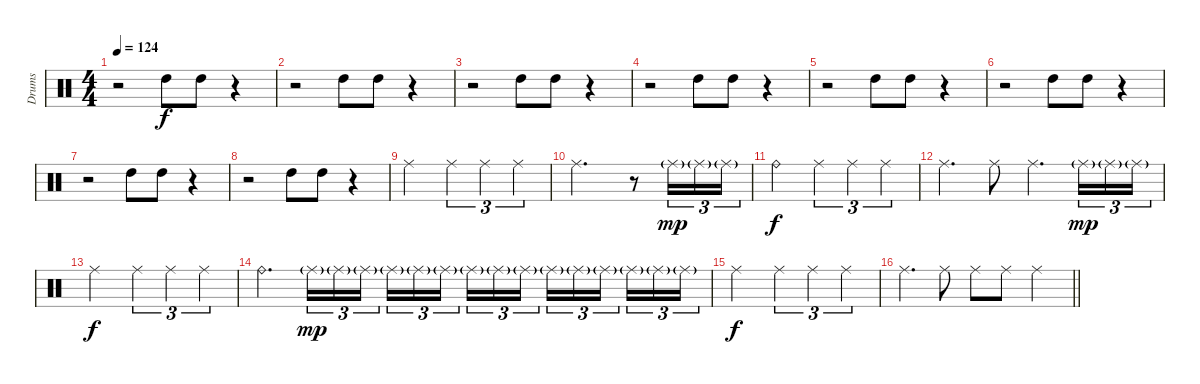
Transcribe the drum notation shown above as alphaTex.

\track ("Drums" "Drums") {instrument percussion}
\staff {score}
\articulation defaults
\ts (4 4)
\tempo 124
\clef neutral
\ks c
r.2{dy f} "High Tom (hit)".8 "High Tom (hit)".8 r.4 |
r.2 "High Tom (hit)".8 "High Tom (hit)".8 r.4 |
r.2 "High Tom (hit)".8 "High Tom (hit)".8 r.4 |
r.2 "High Tom (hit)".8 "High Tom (hit)".8 r.4 |
r.2 "High Tom (hit)".8 "High Tom (hit)".8 r.4 |
r.2 "High Tom (hit)".8 "High Tom (hit)".8 r.4 |
r.2 "High Tom (hit)".8 "High Tom (hit)".8 r.4 |
r.2 "High Tom (hit)".8 "High Tom (hit)".8 r.4 |
"Ride (middle)".2 "Ride (middle)".4{tu (3 2)} "Ride (middle)".4{tu (3 2)} "Ride (middle)".4{tu (3 2)} |
"Ride (middle)".2{d} r.8 "Ride (middle)"{g}.16{tu (3 2) dy mp} "Ride (middle)"{g}.16{tu (3 2)} "Ride (middle)"{g}.16{tu (3 2)} |
"Ride (bell)".2{dy f} "Ride (middle)".4{tu (3 2)} "Ride (middle)".4{tu (3 2)} "Ride (middle)".4{tu (3 2)} |
"Ride (middle)".4{d} "Ride (middle)".8 "Ride (middle)".4{d} "Ride (middle)"{g}.16{tu (3 2) dy mp} "Ride (middle)"{g}.16{tu (3 2)} "Ride (middle)"{g}.16{tu (3 2)} |
"Ride (middle)".2{dy f} "Ride (middle)".4{tu (3 2)} "Ride (middle)".4{tu (3 2)} "Ride (middle)".4{tu (3 2)} |
"Ride (bell)".4{d} "Ride (middle)"{g}.16{tu (3 2) dy mp} "Ride (middle)"{g}.16{tu (3 2)} "Ride (middle)"{g}.16{tu (3 2)} "Ride (middle)"{g}.16{tu (3 2)} "Ride (middle)"{g}.16{tu (3 2)} "Ride (middle)"{g}.16{tu (3 2)} "Ride (middle)"{g}.16{tu (3 2)} "Ride (middle)"{g}.16{tu (3 2)} "Ride (middle)"{g}.16{tu (3 2)} "Ride (middle)"{g}.16{tu (3 2)} "Ride (middle)"{g}.16{tu (3 2)} "Ride (middle)"{g}.16{tu (3 2)} "Ride (middle)"{g}.16{tu (3 2)} "Ride (middle)"{g}.16{tu (3 2)} "Ride (middle)"{g}.16{tu (3 2)} |
"Ride (middle)".2{dy f} "Ride (middle)".4{tu (3 2)} "Ride (middle)".4{tu (3 2)} "Ride (middle)".4{tu (3 2)} |
\barLineRight lightlight "Ride (middle)".4{d} "Ride (middle)".8 "Ride (middle)".8 "Ride (middle)".8 "Ride (middle)".4
